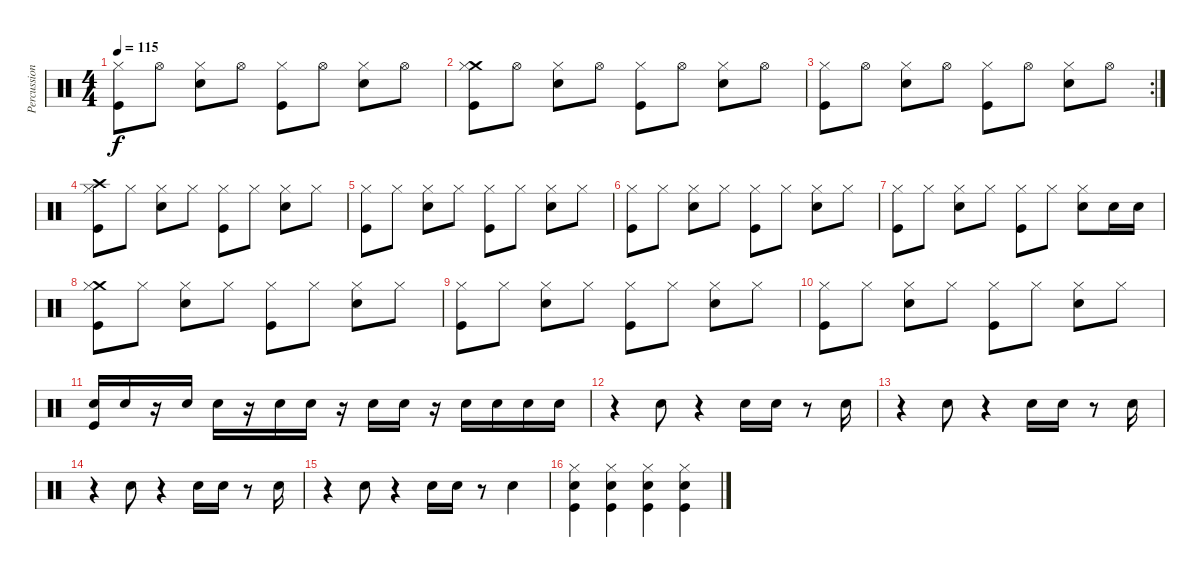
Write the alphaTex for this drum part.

\track ("Percussion" "Percussion") {instrument percussion}
\staff {score}
\articulation defaults
\ts (4 4)
\tempo 115
\clef neutral
\ks c
("Hi-Hat (closed)" "Kick (hit)").8{dy f} "Hi-Hat (open)".8 ("Hi-Hat (closed)" "Snare (hit) 2").8 "Hi-Hat (open)".8 ("Hi-Hat (closed)" "Kick (hit)").8 "Hi-Hat (open)".8 ("Hi-Hat (closed)" "Snare (hit) 2").8 "Hi-Hat (open)".8 |
("Crash medium (hit)" "Hi-Hat (closed)" "Kick (hit)").8 "Hi-Hat (open)".8 ("Hi-Hat (closed)" "Snare (hit) 2").8 "Hi-Hat (open)".8 ("Hi-Hat (closed)" "Kick (hit)").8 "Hi-Hat (open)".8 ("Hi-Hat (closed)" "Snare (hit) 2").8 "Hi-Hat (open)".8 |
\rc 2
("Hi-Hat (closed)" "Kick (hit)").8 "Hi-Hat (open)".8 ("Hi-Hat (closed)" "Snare (hit) 2").8 "Hi-Hat (open)".8 ("Hi-Hat (closed)" "Kick (hit)").8 "Hi-Hat (open)".8 ("Hi-Hat (closed)" "Snare (hit) 2").8 "Hi-Hat (open)".8 |
("Crash high (hit)" "Hi-Hat (closed)" "Kick (hit)").8 "Hi-Hat (closed)".8 ("Hi-Hat (closed)" "Snare (hit) 2").8 "Hi-Hat (closed)".8 ("Hi-Hat (closed)" "Kick (hit)").8 "Hi-Hat (closed)".8 ("Hi-Hat (closed)" "Snare (hit) 2").8 "Hi-Hat (closed)".8 |
("Hi-Hat (closed)" "Kick (hit)").8 "Hi-Hat (closed)".8 ("Hi-Hat (closed)" "Snare (hit) 2").8 "Hi-Hat (closed)".8 ("Hi-Hat (closed)" "Kick (hit)").8 "Hi-Hat (closed)".8 ("Hi-Hat (closed)" "Snare (hit) 2").8 "Hi-Hat (closed)".8 |
("Hi-Hat (closed)" "Kick (hit)").8 "Hi-Hat (closed)".8 ("Hi-Hat (closed)" "Snare (hit) 2").8 "Hi-Hat (closed)".8 ("Hi-Hat (closed)" "Kick (hit)").8 "Hi-Hat (closed)".8 ("Hi-Hat (closed)" "Snare (hit) 2").8 "Hi-Hat (closed)".8 |
("Hi-Hat (closed)" "Kick (hit)").8 "Hi-Hat (closed)".8 ("Hi-Hat (closed)" "Snare (hit) 2").8 "Hi-Hat (closed)".8 ("Hi-Hat (closed)" "Kick (hit)").8 "Hi-Hat (closed)".8 ("Hi-Hat (closed)" "Snare (hit) 2").8 "Snare (hit) 2".16 "Snare (hit) 2".16 |
("Crash medium (hit)" "Hi-Hat (closed)" "Kick (hit)").8 "Hi-Hat (closed)".8 ("Hi-Hat (closed)" "Snare (hit) 2").8 "Hi-Hat (closed)".8 ("Hi-Hat (closed)" "Kick (hit)").8 "Hi-Hat (closed)".8 ("Hi-Hat (closed)" "Snare (hit) 2").8 "Hi-Hat (closed)".8 |
("Hi-Hat (closed)" "Kick (hit)").8 "Hi-Hat (closed)".8 ("Hi-Hat (closed)" "Snare (hit) 2").8 "Hi-Hat (closed)".8 ("Hi-Hat (closed)" "Kick (hit)").8 "Hi-Hat (closed)".8 ("Hi-Hat (closed)" "Snare (hit) 2").8 "Hi-Hat (closed)".8 |
("Hi-Hat (closed)" "Kick (hit)").8 "Hi-Hat (closed)".8 ("Hi-Hat (closed)" "Snare (hit) 2").8 "Hi-Hat (closed)".8 ("Hi-Hat (closed)" "Kick (hit)").8 "Hi-Hat (closed)".8 ("Hi-Hat (closed)" "Snare (hit) 2").8 "Hi-Hat (closed)".8 |
("Snare (hit) 2" "Kick (hit)").16 "Snare (hit) 2".16 r.16 "Snare (hit) 2".16 "Snare (hit) 2".16 r.16 "Snare (hit) 2".16 "Snare (hit) 2".16 r.16 "Snare (hit) 2".16 "Snare (hit) 2".16 r.16 "Snare (hit) 2".16 "Snare (hit) 2".16 "Snare (hit) 2".16 "Snare (hit) 2".16 |
r.4 "Hand Clap (hit)".8 r.4 "Hand Clap (hit)".16 "Hand Clap (hit)".16 r.8 "Hand Clap (hit)".16 |
r.4 "Hand Clap (hit)".8 r.4 "Hand Clap (hit)".16 "Hand Clap (hit)".16 r.8 "Hand Clap (hit)".16 |
r.4 "Hand Clap (hit)".8 r.4 "Hand Clap (hit)".16 "Hand Clap (hit)".16 r.8 "Hand Clap (hit)".16 |
r.4 "Hand Clap (hit)".8 r.4 "Hand Clap (hit)".16 "Hand Clap (hit)".16 r.8 "Hand Clap (hit)".4 |
("Hi-Hat (closed)" "Snare (hit) 2" "Kick (hit)").4 ("Hi-Hat (closed)" "Snare (hit) 2" "Kick (hit)").4 ("Hi-Hat (closed)" "Snare (hit) 2" "Kick (hit)").4 ("Hi-Hat (closed)" "Snare (hit) 2" "Kick (hit)").4
